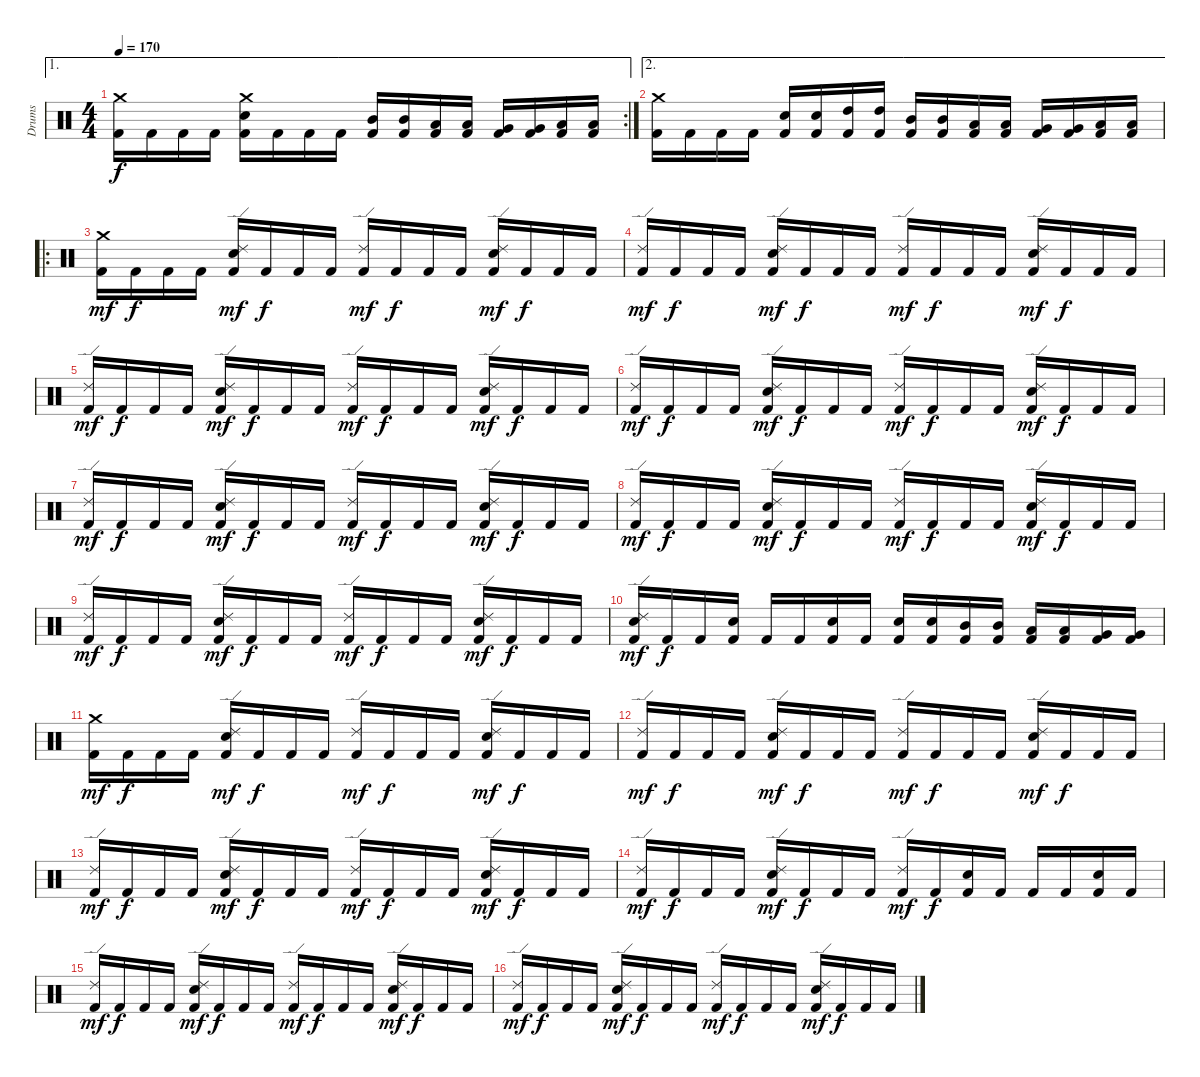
\track ("Drums" "Drums") {instrument percussion}
\staff {score}
\articulation defaults
\ae 1
\rc 2
\ts (4 4)
\tempo 170
\clef neutral
\ks c
("Crash medium (hit)" "Kick (hit) 2").16{dy f} "Kick (hit) 2".16 "Kick (hit) 2".16 "Kick (hit) 2".16 ("Crash medium (hit)" "Snare (hit) 2" "Kick (hit) 2").16 "Kick (hit) 2".16 "Kick (hit) 2".16 "Kick (hit) 2".16 ("Mid Tom (hit)" "Kick (hit) 2").16 ("Mid Tom (hit)" "Kick (hit) 2").16 ("Low Tom (hit)" "Kick (hit) 2").16 ("Low Tom (hit)" "Kick (hit) 2").16 ("Very Low Tom (hit)" "Kick (hit) 2").16 ("Very Low Tom (hit)" "Kick (hit) 2").16 ("Low Floor Tom (hit)" "Kick (hit) 2").16 ("Low Floor Tom (hit)" "Kick (hit) 2").16 |
\ae 2
("Crash medium (hit)" "Kick (hit) 2").16 "Kick (hit) 2".16 "Kick (hit) 2".16 "Kick (hit) 2".16 ("Snare (hit) 2" "Kick (hit) 2").16 ("Snare (hit) 2" "Kick (hit) 2").16 ("High Tom (hit)" "Kick (hit) 2").16 ("High Tom (hit)" "Kick (hit) 2").16 ("Mid Tom (hit)" "Kick (hit) 2").16 ("Mid Tom (hit)" "Kick (hit) 2").16 ("Low Tom (hit)" "Kick (hit) 2").16 ("Low Tom (hit)" "Kick (hit) 2").16 ("Very Low Tom (hit)" "Kick (hit) 2").16 ("Very Low Tom (hit)" "Kick (hit) 2").16 ("Low Floor Tom (hit)" "Kick (hit) 2").16 ("Low Floor Tom (hit)" "Kick (hit) 2").16 |
\ro
("Crash medium (hit)" "Kick (hit) 2").16{dy mf} "Kick (hit) 2".16{dy f} "Kick (hit) 2".16 "Kick (hit) 2".16 ("Ride (edge) 2" "Snare (hit) 2" "Kick (hit) 2").16{dy mf} "Kick (hit) 2".16{dy f} "Kick (hit) 2".16 "Kick (hit) 2".16 ("Ride (edge) 2" "Kick (hit) 2").16{dy mf} "Kick (hit) 2".16{dy f} "Kick (hit) 2".16 "Kick (hit) 2".16 ("Ride (edge) 2" "Snare (hit) 2" "Kick (hit) 2").16{dy mf} "Kick (hit) 2".16{dy f} "Kick (hit) 2".16 "Kick (hit) 2".16 |
("Ride (edge) 2" "Kick (hit) 2").16{dy mf} "Kick (hit) 2".16{dy f} "Kick (hit) 2".16 "Kick (hit) 2".16 ("Ride (edge) 2" "Snare (hit) 2" "Kick (hit) 2").16{dy mf} "Kick (hit) 2".16{dy f} "Kick (hit) 2".16 "Kick (hit) 2".16 ("Ride (edge) 2" "Kick (hit) 2").16{dy mf} "Kick (hit) 2".16{dy f} "Kick (hit) 2".16 "Kick (hit) 2".16 ("Ride (edge) 2" "Snare (hit) 2" "Kick (hit) 2").16{dy mf} "Kick (hit) 2".16{dy f} "Kick (hit) 2".16 "Kick (hit) 2".16 |
("Ride (edge) 2" "Kick (hit) 2").16{dy mf} "Kick (hit) 2".16{dy f} "Kick (hit) 2".16 "Kick (hit) 2".16 ("Ride (edge) 2" "Snare (hit) 2" "Kick (hit) 2").16{dy mf} "Kick (hit) 2".16{dy f} "Kick (hit) 2".16 "Kick (hit) 2".16 ("Ride (edge) 2" "Kick (hit) 2").16{dy mf} "Kick (hit) 2".16{dy f} "Kick (hit) 2".16 "Kick (hit) 2".16 ("Ride (edge) 2" "Snare (hit) 2" "Kick (hit) 2").16{dy mf} "Kick (hit) 2".16{dy f} "Kick (hit) 2".16 "Kick (hit) 2".16 |
("Ride (edge) 2" "Kick (hit) 2").16{dy mf} "Kick (hit) 2".16{dy f} "Kick (hit) 2".16 "Kick (hit) 2".16 ("Ride (edge) 2" "Snare (hit) 2" "Kick (hit) 2").16{dy mf} "Kick (hit) 2".16{dy f} "Kick (hit) 2".16 "Kick (hit) 2".16 ("Ride (edge) 2" "Kick (hit) 2").16{dy mf} "Kick (hit) 2".16{dy f} "Kick (hit) 2".16 "Kick (hit) 2".16 ("Ride (edge) 2" "Snare (hit) 2" "Kick (hit) 2").16{dy mf} "Kick (hit) 2".16{dy f} "Kick (hit) 2".16 "Kick (hit) 2".16 |
("Ride (edge) 2" "Kick (hit) 2").16{dy mf} "Kick (hit) 2".16{dy f} "Kick (hit) 2".16 "Kick (hit) 2".16 ("Ride (edge) 2" "Snare (hit) 2" "Kick (hit) 2").16{dy mf} "Kick (hit) 2".16{dy f} "Kick (hit) 2".16 "Kick (hit) 2".16 ("Ride (edge) 2" "Kick (hit) 2").16{dy mf} "Kick (hit) 2".16{dy f} "Kick (hit) 2".16 "Kick (hit) 2".16 ("Ride (edge) 2" "Snare (hit) 2" "Kick (hit) 2").16{dy mf} "Kick (hit) 2".16{dy f} "Kick (hit) 2".16 "Kick (hit) 2".16 |
("Ride (edge) 2" "Kick (hit) 2").16{dy mf} "Kick (hit) 2".16{dy f} "Kick (hit) 2".16 "Kick (hit) 2".16 ("Ride (edge) 2" "Snare (hit) 2" "Kick (hit) 2").16{dy mf} "Kick (hit) 2".16{dy f} "Kick (hit) 2".16 "Kick (hit) 2".16 ("Ride (edge) 2" "Kick (hit) 2").16{dy mf} "Kick (hit) 2".16{dy f} "Kick (hit) 2".16 "Kick (hit) 2".16 ("Ride (edge) 2" "Snare (hit) 2" "Kick (hit) 2").16{dy mf} "Kick (hit) 2".16{dy f} "Kick (hit) 2".16 "Kick (hit) 2".16 |
("Ride (edge) 2" "Kick (hit) 2").16{dy mf} "Kick (hit) 2".16{dy f} "Kick (hit) 2".16 "Kick (hit) 2".16 ("Ride (edge) 2" "Snare (hit) 2" "Kick (hit) 2").16{dy mf} "Kick (hit) 2".16{dy f} "Kick (hit) 2".16 "Kick (hit) 2".16 ("Ride (edge) 2" "Kick (hit) 2").16{dy mf} "Kick (hit) 2".16{dy f} "Kick (hit) 2".16 "Kick (hit) 2".16 ("Ride (edge) 2" "Snare (hit) 2" "Kick (hit) 2").16{dy mf} "Kick (hit) 2".16{dy f} "Kick (hit) 2".16 "Kick (hit) 2".16 |
("Ride (edge) 2" "Snare (hit) 2" "Kick (hit) 2").16{dy mf} "Kick (hit) 2".16{dy f} "Kick (hit) 2".16 ("Snare (hit) 2" "Kick (hit) 2").16 "Kick (hit) 2".16 "Kick (hit) 2".16 ("Snare (hit) 2" "Kick (hit) 2").16 "Kick (hit) 2".16 ("Snare (hit) 2" "Kick (hit) 2").16 ("Snare (hit) 2" "Kick (hit) 2").16 ("Mid Tom (hit)" "Kick (hit) 2").16 ("Mid Tom (hit)" "Kick (hit) 2").16 ("Low Tom (hit)" "Kick (hit) 2").16 ("Low Tom (hit)" "Kick (hit) 2").16 ("Very Low Tom (hit)" "Kick (hit) 2").16 ("Very Low Tom (hit)" "Kick (hit) 2").16 |
("Crash medium (hit)" "Kick (hit) 2").16{dy mf} "Kick (hit) 2".16{dy f} "Kick (hit) 2".16 "Kick (hit) 2".16 ("Ride (edge) 2" "Snare (hit) 2" "Kick (hit) 2").16{dy mf} "Kick (hit) 2".16{dy f} "Kick (hit) 2".16 "Kick (hit) 2".16 ("Ride (edge) 2" "Kick (hit) 2").16{dy mf} "Kick (hit) 2".16{dy f} "Kick (hit) 2".16 "Kick (hit) 2".16 ("Ride (edge) 2" "Snare (hit) 2" "Kick (hit) 2").16{dy mf} "Kick (hit) 2".16{dy f} "Kick (hit) 2".16 "Kick (hit) 2".16 |
("Ride (edge) 2" "Kick (hit) 2").16{dy mf} "Kick (hit) 2".16{dy f} "Kick (hit) 2".16 "Kick (hit) 2".16 ("Ride (edge) 2" "Snare (hit) 2" "Kick (hit) 2").16{dy mf} "Kick (hit) 2".16{dy f} "Kick (hit) 2".16 "Kick (hit) 2".16 ("Ride (edge) 2" "Kick (hit) 2").16{dy mf} "Kick (hit) 2".16{dy f} "Kick (hit) 2".16 "Kick (hit) 2".16 ("Ride (edge) 2" "Snare (hit) 2" "Kick (hit) 2").16{dy mf} "Kick (hit) 2".16{dy f} "Kick (hit) 2".16 "Kick (hit) 2".16 |
("Ride (edge) 2" "Kick (hit) 2").16{dy mf} "Kick (hit) 2".16{dy f} "Kick (hit) 2".16 "Kick (hit) 2".16 ("Ride (edge) 2" "Snare (hit) 2" "Kick (hit) 2").16{dy mf} "Kick (hit) 2".16{dy f} "Kick (hit) 2".16 "Kick (hit) 2".16 ("Ride (edge) 2" "Kick (hit) 2").16{dy mf} "Kick (hit) 2".16{dy f} "Kick (hit) 2".16 "Kick (hit) 2".16 ("Ride (edge) 2" "Snare (hit) 2" "Kick (hit) 2").16{dy mf} "Kick (hit) 2".16{dy f} "Kick (hit) 2".16 "Kick (hit) 2".16 |
("Ride (edge) 2" "Kick (hit) 2").16{dy mf} "Kick (hit) 2".16{dy f} "Kick (hit) 2".16 "Kick (hit) 2".16 ("Ride (edge) 2" "Snare (hit) 2" "Kick (hit) 2").16{dy mf} "Kick (hit) 2".16{dy f} "Kick (hit) 2".16 "Kick (hit) 2".16 ("Ride (edge) 2" "Kick (hit) 2").16{dy mf} "Kick (hit) 2".16{dy f} ("Snare (hit) 2" "Kick (hit) 2").16 "Kick (hit) 2".16 "Kick (hit) 2".16 "Kick (hit) 2".16 ("Snare (hit) 2" "Kick (hit) 2").16 "Kick (hit) 2".16 |
("Ride (edge) 2" "Kick (hit) 2").16{dy mf} "Kick (hit) 2".16{dy f} "Kick (hit) 2".16 "Kick (hit) 2".16 ("Ride (edge) 2" "Snare (hit) 2" "Kick (hit) 2").16{dy mf} "Kick (hit) 2".16{dy f} "Kick (hit) 2".16 "Kick (hit) 2".16 ("Ride (edge) 2" "Kick (hit) 2").16{dy mf} "Kick (hit) 2".16{dy f} "Kick (hit) 2".16 "Kick (hit) 2".16 ("Ride (edge) 2" "Snare (hit) 2" "Kick (hit) 2").16{dy mf} "Kick (hit) 2".16{dy f} "Kick (hit) 2".16 "Kick (hit) 2".16 |
("Ride (edge) 2" "Kick (hit) 2").16{dy mf} "Kick (hit) 2".16{dy f} "Kick (hit) 2".16 "Kick (hit) 2".16 ("Ride (edge) 2" "Snare (hit) 2" "Kick (hit) 2").16{dy mf} "Kick (hit) 2".16{dy f} "Kick (hit) 2".16 "Kick (hit) 2".16 ("Ride (edge) 2" "Kick (hit) 2").16{dy mf} "Kick (hit) 2".16{dy f} "Kick (hit) 2".16 "Kick (hit) 2".16 ("Ride (edge) 2" "Snare (hit) 2" "Kick (hit) 2").16{dy mf} "Kick (hit) 2".16{dy f} "Kick (hit) 2".16 "Kick (hit) 2".16
